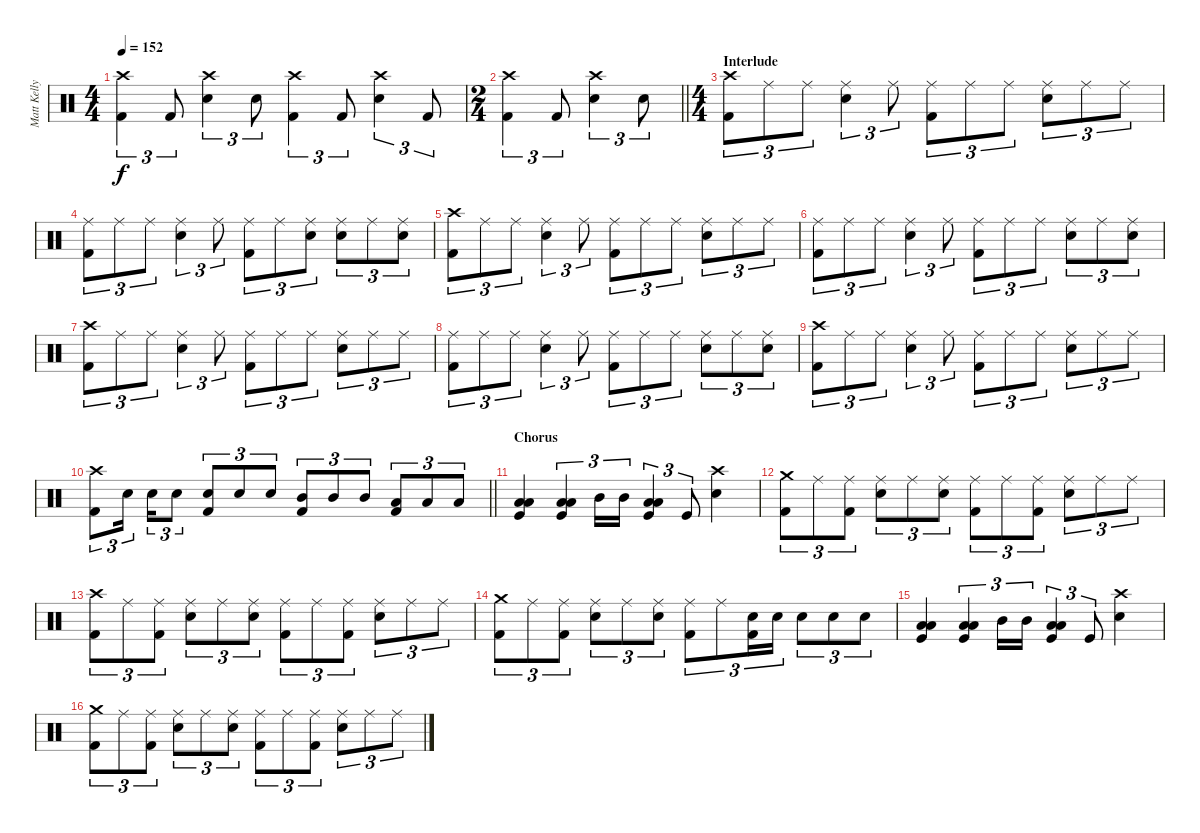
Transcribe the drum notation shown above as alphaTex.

\track ("Matt Kelly (Drums)" "Matt Kelly") {instrument percussion}
\staff {score}
\articulation defaults
\ts (4 4)
\tempo 152
\clef neutral
\ks c
("Crash high (hit)" "Kick (hit) 2").4{tu (3 2) dy f} "Kick (hit) 2".8{tu (3 2)} ("Crash high (hit)" "Electric Snare (hit)").4{tu (3 2)} "Electric Snare (hit)".8{tu (3 2)} ("Crash high (hit)" "Kick (hit) 2").4{tu (3 2)} "Kick (hit) 2".8{tu (3 2)} ("Crash high (hit)" "Electric Snare (hit)").4{tu (3 2)} "Kick (hit) 2".8{tu (3 2)} |
\ts (2 4)
\barLineRight lightlight
("Crash high (hit)" "Kick (hit) 2").4{tu (3 2)} "Kick (hit) 2".8{tu (3 2)} ("Crash high (hit)" "Electric Snare (hit)").4{tu (3 2)} "Electric Snare (hit)".8{tu (3 2)} |
\ts (4 4)
\section ("" "Interlude")
("Crash high (hit)" "Kick (hit) 2").8{tu (3 2)} "Ride (middle)".8{tu (3 2)} "Ride (middle)".8{tu (3 2)} ("Ride (middle)" "Electric Snare (hit)").4{tu (3 2)} "Ride (middle)".8{tu (3 2)} ("Ride (middle)" "Kick (hit) 2").8{tu (3 2)} "Ride (middle)".8{tu (3 2)} "Ride (middle)".8{tu (3 2)} ("Ride (middle)" "Electric Snare (hit)").8{tu (3 2)} "Ride (middle)".8{tu (3 2)} "Ride (middle)".8{tu (3 2)} |
("Ride (middle)" "Kick (hit) 2").8{tu (3 2)} "Ride (middle)".8{tu (3 2)} "Ride (middle)".8{tu (3 2)} ("Ride (middle)" "Electric Snare (hit)").4{tu (3 2)} "Ride (middle)".8{tu (3 2)} ("Ride (middle)" "Kick (hit) 2").8{tu (3 2)} "Ride (middle)".8{tu (3 2)} ("Ride (middle)" "Electric Snare (hit)").8{tu (3 2)} ("Ride (middle)" "Electric Snare (hit)").8{tu (3 2)} "Ride (middle)".8{tu (3 2)} ("Ride (middle)" "Electric Snare (hit)").8{tu (3 2)} |
("Crash high (hit)" "Kick (hit) 2").8{tu (3 2)} "Ride (middle)".8{tu (3 2)} "Ride (middle)".8{tu (3 2)} ("Ride (middle)" "Electric Snare (hit)").4{tu (3 2)} "Ride (middle)".8{tu (3 2)} ("Ride (middle)" "Kick (hit) 2").8{tu (3 2)} "Ride (middle)".8{tu (3 2)} "Ride (middle)".8{tu (3 2)} ("Ride (middle)" "Electric Snare (hit)").8{tu (3 2)} "Ride (middle)".8{tu (3 2)} "Ride (middle)".8{tu (3 2)} |
("Ride (middle)" "Kick (hit) 2").8{tu (3 2)} "Ride (middle)".8{tu (3 2)} "Ride (middle)".8{tu (3 2)} ("Ride (middle)" "Electric Snare (hit)").4{tu (3 2)} "Ride (middle)".8{tu (3 2)} ("Ride (middle)" "Kick (hit) 2").8{tu (3 2)} "Ride (middle)".8{tu (3 2)} "Ride (middle)".8{tu (3 2)} ("Ride (middle)" "Electric Snare (hit)").8{tu (3 2)} "Ride (middle)".8{tu (3 2)} ("Ride (middle)" "Electric Snare (hit)").8{tu (3 2)} |
("Crash high (hit)" "Kick (hit) 2").8{tu (3 2)} "Ride (middle)".8{tu (3 2)} "Ride (middle)".8{tu (3 2)} ("Ride (middle)" "Electric Snare (hit)").4{tu (3 2)} "Ride (middle)".8{tu (3 2)} ("Ride (middle)" "Kick (hit) 2").8{tu (3 2)} "Ride (middle)".8{tu (3 2)} "Ride (middle)".8{tu (3 2)} ("Ride (middle)" "Electric Snare (hit)").8{tu (3 2)} "Ride (middle)".8{tu (3 2)} "Ride (middle)".8{tu (3 2)} |
("Ride (middle)" "Kick (hit) 2").8{tu (3 2)} "Ride (middle)".8{tu (3 2)} "Ride (middle)".8{tu (3 2)} ("Ride (middle)" "Electric Snare (hit)").4{tu (3 2)} "Ride (middle)".8{tu (3 2)} ("Ride (middle)" "Kick (hit) 2").8{tu (3 2)} "Ride (middle)".8{tu (3 2)} "Ride (middle)".8{tu (3 2)} ("Ride (middle)" "Electric Snare (hit)").8{tu (3 2)} "Ride (middle)".8{tu (3 2)} ("Ride (middle)" "Electric Snare (hit)").8{tu (3 2)} |
("Crash high (hit)" "Kick (hit) 2").8{tu (3 2)} "Ride (middle)".8{tu (3 2)} "Ride (middle)".8{tu (3 2)} ("Ride (middle)" "Electric Snare (hit)").4{tu (3 2)} "Ride (middle)".8{tu (3 2)} ("Ride (middle)" "Kick (hit) 2").8{tu (3 2)} "Ride (middle)".8{tu (3 2)} "Ride (middle)".8{tu (3 2)} ("Ride (middle)" "Electric Snare (hit)").8{tu (3 2)} "Ride (middle)".8{tu (3 2)} "Ride (middle)".8{tu (3 2)} |
\barLineRight lightlight
("Crash high (hit)" "Kick (hit) 2").8{tu (3 2)} "Electric Snare (hit)".16{tu (3 2) beam splitsecondary} "Electric Snare (hit)".16{tu (3 2)} "Electric Snare (hit)".8{tu (3 2)} ("Electric Snare (hit)" "Kick (hit) 2").8{tu (3 2)} "Electric Snare (hit)".8{tu (3 2)} "Electric Snare (hit)".8{tu (3 2)} ("Mid Tom (hit)" "Kick (hit) 2").8{tu (3 2)} "Mid Tom (hit)".8{tu (3 2)} "Mid Tom (hit)".8{tu (3 2)} ("Low Tom (hit)" "Kick (hit) 2").8{tu (3 2)} "Low Tom (hit)".8{tu (3 2)} "Low Tom (hit)".8{tu (3 2)} |
\section ("" "Chorus")
("Low Tom (hit)" "Low Floor Tom (hit)" "Kick (hit)").4 ("Low Tom (hit)" "Low Floor Tom (hit)" "Kick (hit)").4{tu (3 2)} "Mid Tom (hit)".16{tu (3 2)} "Mid Tom (hit)".16{tu (3 2)} ("Low Tom (hit)" "Low Floor Tom (hit)" "Kick (hit)").4{tu (3 2)} "Kick (hit)".8{tu (3 2)} ("Crash high (hit)" "Snare (hit) 2").4 |
("Crash medium (hit)" "Kick (hit) 2").8{tu (3 2)} "Ride (middle)".8{tu (3 2)} ("Ride (middle)" "Kick (hit) 2").8{tu (3 2)} ("Ride (middle)" "Electric Snare (hit)").8{tu (3 2)} "Ride (middle)".8{tu (3 2)} ("Ride (middle)" "Electric Snare (hit)").8{tu (3 2)} ("Ride (middle)" "Kick (hit) 2").8{tu (3 2)} "Ride (middle)".8{tu (3 2)} ("Ride (middle)" "Kick (hit) 2").8{tu (3 2)} ("Ride (middle)" "Electric Snare (hit)").8{tu (3 2)} "Ride (middle)".8{tu (3 2)} "Ride (middle)".8{tu (3 2)} |
("Crash high (hit)" "Kick (hit) 2").8{tu (3 2)} "Ride (middle)".8{tu (3 2)} ("Ride (middle)" "Kick (hit) 2").8{tu (3 2)} ("Ride (middle)" "Electric Snare (hit)").8{tu (3 2)} "Ride (middle)".8{tu (3 2)} ("Ride (middle)" "Electric Snare (hit)").8{tu (3 2)} ("Ride (middle)" "Kick (hit) 2").8{tu (3 2)} "Ride (middle)".8{tu (3 2)} ("Ride (middle)" "Kick (hit) 2").8{tu (3 2)} ("Ride (middle)" "Electric Snare (hit)").8{tu (3 2)} "Ride (middle)".8{tu (3 2)} "Ride (middle)".8{tu (3 2)} |
("Crash medium (hit)" "Kick (hit) 2").8{tu (3 2)} "Ride (middle)".8{tu (3 2)} ("Ride (middle)" "Kick (hit) 2").8{tu (3 2)} ("Ride (middle)" "Electric Snare (hit)").8{tu (3 2)} "Ride (middle)".8{tu (3 2)} ("Ride (middle)" "Electric Snare (hit)").8{tu (3 2)} ("Ride (middle)" "Kick (hit) 2").8{tu (3 2)} "Ride (middle)".8{tu (3 2)} ("Electric Snare (hit)" "Kick (hit) 2").16{tu (3 2)} "Electric Snare (hit)".16{tu (3 2)} "Electric Snare (hit)".8{tu (3 2)} "Electric Snare (hit)".8{tu (3 2)} "Electric Snare (hit)".8{tu (3 2)} |
("Low Tom (hit)" "Low Floor Tom (hit)" "Kick (hit)").4 ("Low Tom (hit)" "Low Floor Tom (hit)" "Kick (hit)").4{tu (3 2)} "Mid Tom (hit)".16{tu (3 2)} "Mid Tom (hit)".16{tu (3 2)} ("Low Tom (hit)" "Low Floor Tom (hit)" "Kick (hit)").4{tu (3 2)} "Kick (hit)".8{tu (3 2)} ("Crash high (hit)" "Snare (hit) 2").4 |
("Crash medium (hit)" "Kick (hit) 2").8{tu (3 2)} "Ride (middle)".8{tu (3 2)} ("Ride (middle)" "Kick (hit) 2").8{tu (3 2)} ("Ride (middle)" "Electric Snare (hit)").8{tu (3 2)} "Ride (middle)".8{tu (3 2)} ("Ride (middle)" "Electric Snare (hit)").8{tu (3 2)} ("Ride (middle)" "Kick (hit) 2").8{tu (3 2)} "Ride (middle)".8{tu (3 2)} ("Ride (middle)" "Kick (hit) 2").8{tu (3 2)} ("Ride (middle)" "Electric Snare (hit)").8{tu (3 2)} "Ride (middle)".8{tu (3 2)} "Ride (middle)".8{tu (3 2)}
